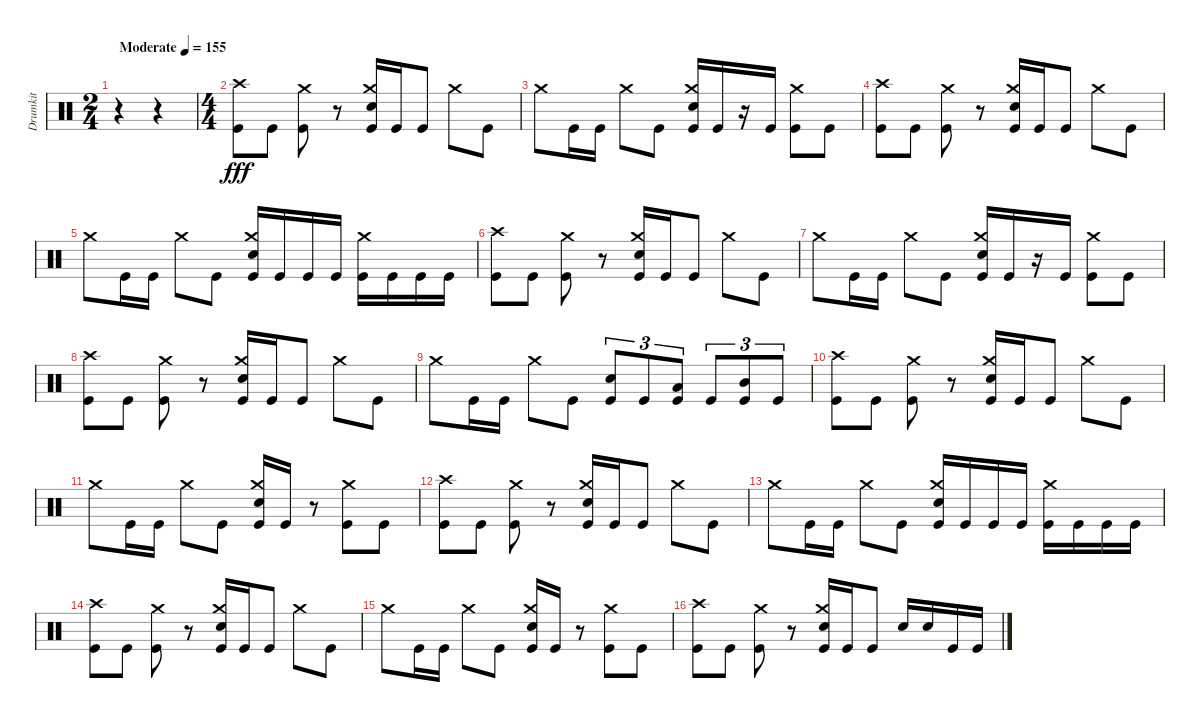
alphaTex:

\track ("Drumkit" "Drumkit") {instrument percussion}
\staff {score}
\articulation defaults
\ts (2 4)
\tempo (155 "Moderate")
\clef neutral
\ks c
r.4{dy fff} r.4 |
\ts (4 4)
("Crash high (hit)" "Kick (hit)").8 "Kick (hit)".8 ("Crash medium (hit)" "Kick (hit)").8 r.8 ("Crash medium (hit)" "Snare (hit) 2" "Kick (hit)").16 "Kick (hit)".16 "Kick (hit)".8 "Crash medium (hit)".8 "Kick (hit)".8 |
"Crash medium (hit)".8 "Kick (hit)".16 "Kick (hit)".16 "Crash medium (hit)".8 "Kick (hit)".8 ("Crash medium (hit)" "Snare (hit) 2" "Kick (hit)").16 "Kick (hit)".16 r.16 "Kick (hit)".16 ("Crash medium (hit)" "Kick (hit)").8 "Kick (hit)".8 |
("Crash high (hit)" "Kick (hit)").8 "Kick (hit)".8 ("Crash medium (hit)" "Kick (hit)").8 r.8 ("Crash medium (hit)" "Snare (hit) 2" "Kick (hit)").16 "Kick (hit)".16 "Kick (hit)".8 "Crash medium (hit)".8 "Kick (hit)".8 |
"Crash medium (hit)".8 "Kick (hit)".16 "Kick (hit)".16 "Crash medium (hit)".8 "Kick (hit)".8 ("Crash medium (hit)" "Snare (hit) 2" "Kick (hit)").16 "Kick (hit)".16 "Kick (hit)".16 "Kick (hit)".16 ("Crash medium (hit)" "Kick (hit)").16 "Kick (hit)".16 "Kick (hit)".16 "Kick (hit)".16 |
("Crash high (hit)" "Kick (hit)").8 "Kick (hit)".8 ("Crash medium (hit)" "Kick (hit)").8 r.8 ("Crash medium (hit)" "Snare (hit) 2" "Kick (hit)").16 "Kick (hit)".16 "Kick (hit)".8 "Crash medium (hit)".8 "Kick (hit)".8 |
"Crash medium (hit)".8 "Kick (hit)".16 "Kick (hit)".16 "Crash medium (hit)".8 "Kick (hit)".8 ("Crash medium (hit)" "Snare (hit) 2" "Kick (hit)").16 "Kick (hit)".16 r.16 "Kick (hit)".16 ("Crash medium (hit)" "Kick (hit)").8 "Kick (hit)".8 |
("Crash high (hit)" "Kick (hit)").8 "Kick (hit)".8 ("Crash medium (hit)" "Kick (hit)").8 r.8 ("Crash medium (hit)" "Snare (hit) 2" "Kick (hit)").16 "Kick (hit)".16 "Kick (hit)".8 "Crash medium (hit)".8 "Kick (hit)".8 |
"Crash medium (hit)".8 "Kick (hit)".16 "Kick (hit)".16 "Crash medium (hit)".8 "Kick (hit)".8 ("Snare (hit) 2" "Kick (hit)").8{tu (3 2)} "Kick (hit)".8{tu (3 2)} ("Low Tom (hit)" "Kick (hit)").8{tu (3 2)} "Kick (hit)".8{tu (3 2)} ("Mid Tom (hit)" "Kick (hit)").8{tu (3 2)} "Kick (hit)".8{tu (3 2)} |
("Crash high (hit)" "Kick (hit)").8 "Kick (hit)".8 ("Crash medium (hit)" "Kick (hit)").8 r.8 ("Crash medium (hit)" "Snare (hit) 2" "Kick (hit)").16 "Kick (hit)".16 "Kick (hit)".8 "Crash medium (hit)".8 "Kick (hit)".8 |
"Crash medium (hit)".8 "Kick (hit)".16 "Kick (hit)".16 "Crash medium (hit)".8 "Kick (hit)".8 ("Crash medium (hit)" "Snare (hit) 2" "Kick (hit)").16 "Kick (hit)".16 r.8 ("Crash medium (hit)" "Kick (hit)").8 "Kick (hit)".8 |
("Crash high (hit)" "Kick (hit)").8 "Kick (hit)".8 ("Crash medium (hit)" "Kick (hit)").8 r.8 ("Crash medium (hit)" "Snare (hit) 2" "Kick (hit)").16 "Kick (hit)".16 "Kick (hit)".8 "Crash medium (hit)".8 "Kick (hit)".8 |
"Crash medium (hit)".8 "Kick (hit)".16 "Kick (hit)".16 "Crash medium (hit)".8 "Kick (hit)".8 ("Crash medium (hit)" "Snare (hit) 2" "Kick (hit)").16 "Kick (hit)".16 "Kick (hit)".16 "Kick (hit)".16 ("Crash medium (hit)" "Kick (hit)").16 "Kick (hit)".16 "Kick (hit)".16 "Kick (hit)".16 |
("Crash high (hit)" "Kick (hit)").8 "Kick (hit)".8 ("Crash medium (hit)" "Kick (hit)").8 r.8 ("Crash medium (hit)" "Snare (hit) 2" "Kick (hit)").16 "Kick (hit)".16 "Kick (hit)".8 "Crash medium (hit)".8 "Kick (hit)".8 |
"Crash medium (hit)".8 "Kick (hit)".16 "Kick (hit)".16 "Crash medium (hit)".8 "Kick (hit)".8 ("Crash medium (hit)" "Snare (hit) 2" "Kick (hit)").16 "Kick (hit)".16 r.8 ("Crash medium (hit)" "Kick (hit)").8 "Kick (hit)".8 |
("Crash high (hit)" "Kick (hit)").8 "Kick (hit)".8 ("Crash medium (hit)" "Kick (hit)").8 r.8 ("Crash medium (hit)" "Snare (hit) 2" "Kick (hit)").16 "Kick (hit)".16 "Kick (hit)".8 "Snare (hit) 2".16 "Snare (hit) 2".16 "Kick (hit)".16 "Kick (hit)".16
